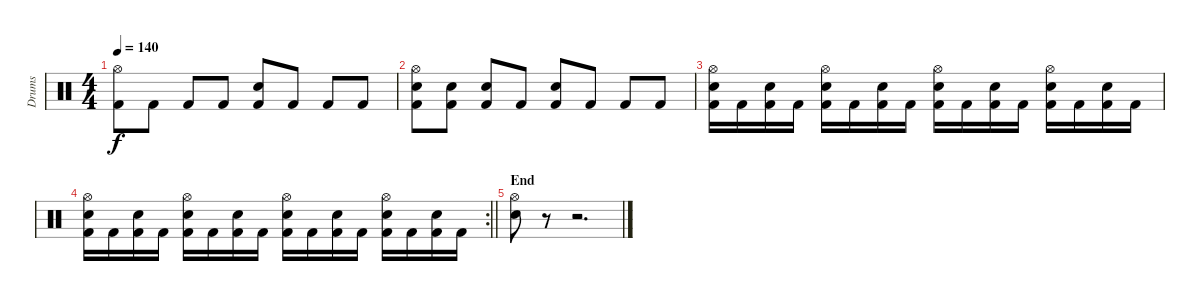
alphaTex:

\track ("Drums" "Drums") {instrument percussion}
\staff {score}
\articulation defaults
\ts (4 4)
\tempo 140
\clef neutral
\ks c
("Hi-Hat (open)" "Kick (hit) 2").8{dy f} "Kick (hit) 2".8 "Kick (hit) 2".8 "Kick (hit) 2".8 ("Snare (hit) 2" "Kick (hit) 2").8 "Kick (hit) 2".8 "Kick (hit) 2".8 "Kick (hit) 2".8 |
("Hi-Hat (open)" "Snare (hit) 2" "Kick (hit) 2").8 ("Snare (hit) 2" "Kick (hit) 2").8 ("Snare (hit) 2" "Kick (hit) 2").8 "Kick (hit) 2".8 ("Snare (hit) 2" "Kick (hit) 2").8 "Kick (hit) 2".8 "Kick (hit) 2".8 "Kick (hit) 2".8 |
("Hi-Hat (open)" "Snare (hit) 2" "Kick (hit) 2").16 "Kick (hit) 2".16 ("Snare (hit) 2" "Kick (hit) 2").16 "Kick (hit) 2".16 ("Hi-Hat (open)" "Snare (hit) 2" "Kick (hit) 2").16 "Kick (hit) 2".16 ("Snare (hit) 2" "Kick (hit) 2").16 "Kick (hit) 2".16 ("Hi-Hat (open)" "Snare (hit) 2" "Kick (hit) 2").16 "Kick (hit) 2".16 ("Snare (hit) 2" "Kick (hit) 2").16 "Kick (hit) 2".16 ("Hi-Hat (open)" "Snare (hit) 2" "Kick (hit) 2").16 "Kick (hit) 2".16 ("Snare (hit) 2" "Kick (hit) 2").16 "Kick (hit) 2".16 |
\rc 2
\barLineRight lightlight
("Hi-Hat (open)" "Snare (hit) 2" "Kick (hit) 2").16 "Kick (hit) 2".16 ("Snare (hit) 2" "Kick (hit) 2").16 "Kick (hit) 2".16 ("Hi-Hat (open)" "Snare (hit) 2" "Kick (hit) 2").16 "Kick (hit) 2".16 ("Snare (hit) 2" "Kick (hit) 2").16 "Kick (hit) 2".16 ("Hi-Hat (open)" "Snare (hit) 2" "Kick (hit) 2").16 "Kick (hit) 2".16 ("Snare (hit) 2" "Kick (hit) 2").16 "Kick (hit) 2".16 ("Hi-Hat (open)" "Snare (hit) 2" "Kick (hit) 2").16 "Kick (hit) 2".16 ("Snare (hit) 2" "Kick (hit) 2").16 "Kick (hit) 2".16 |
\section ("" "End")
("Snare (hit) 2" "Hi-Hat (open)").8 r.8 r.2{d}
